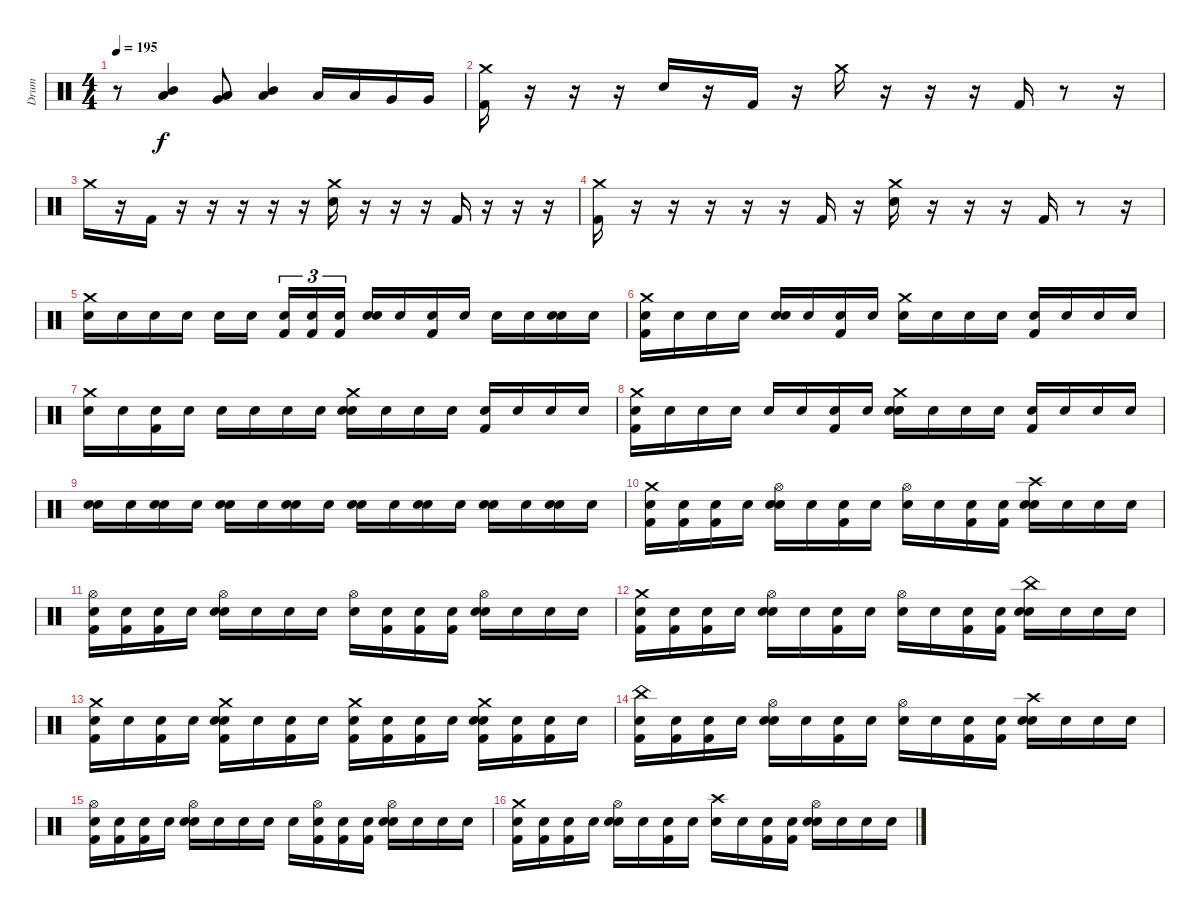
\track ("Drum" "Drum") {instrument percussion}
\staff {score}
\articulation defaults
\ts (4 4)
\tempo 195
\clef neutral
\ks c
r.8{dy f} ("Mid Tom (hit)" "Low Tom (hit)").4 ("Very Low Tom (hit)" "Low Tom (hit)").8 ("Mid Tom (hit)" "Low Tom (hit)").4 "Low Tom (hit)".16 "Low Tom (hit)".16 "Very Low Tom (hit)".16 "Very Low Tom (hit)".16 |
("Crash medium (hit)" "Kick (hit) 2").16 r.16 r.16 r.16 "Snare (hit) 2".16 r.16 "Kick (hit) 2".16 r.16 "Crash medium (hit)".16 r.16 r.16 r.16 "Kick (hit) 2".16 r.8 r.16 |
"Crash medium (hit)".16 r.16 "Kick (hit) 2".16 r.16 r.16 r.16 r.16 r.16 ("Crash medium (hit)" "Snare (hit) 2").16 r.16 r.16 r.16 "Kick (hit) 2".16 r.16 r.16 r.16 |
("Crash medium (hit)" "Kick (hit) 2").16 r.16 r.16 r.16 r.16 r.16 "Kick (hit) 2".16 r.16 ("Crash medium (hit)" "Snare (hit) 2").16 r.16 r.16 r.16 "Kick (hit) 2".16 r.8 r.16 |
("Crash medium (hit)" "Snare (hit)").16 "Snare (hit)".16 "Snare (hit)".16 "Snare (hit)".16 "Snare (hit)".16 "Snare (hit)".16{beam splitsecondary} ("Snare (hit)" "Kick (hit) 2").16{tu (3 2)} ("Snare (hit)" "Kick (hit) 2").16{tu (3 2)} ("Snare (hit)" "Kick (hit) 2").16{tu (3 2)} ("Snare (hit)" "Snare (hit) 2").16 "Snare (hit)".16 ("Snare (hit)" "Kick (hit) 2").16 "Snare (hit)".16 "Snare (hit)".16 "Snare (hit)".16 ("Snare (hit)" "Snare (hit) 2").16 "Snare (hit)".16 |
("Crash medium (hit)" "Snare (hit)" "Kick (hit) 2").16 "Snare (hit)".16 "Snare (hit)".16 "Snare (hit)".16 ("Snare (hit)" "Snare (hit) 2").16 "Snare (hit)".16 ("Snare (hit)" "Kick (hit) 2").16 "Snare (hit)".16 ("Crash medium (hit)" "Snare (hit)").16 "Snare (hit)".16 "Snare (hit)".16 "Snare (hit)".16 ("Snare (hit)" "Kick (hit) 2").16 "Snare (hit)".16 "Snare (hit)".16 "Snare (hit)".16 |
("Crash medium (hit)" "Snare (hit)").16 "Snare (hit)".16 ("Snare (hit)" "Kick (hit) 2").16 "Snare (hit)".16 "Snare (hit)".16 "Snare (hit)".16 "Snare (hit)".16 "Snare (hit)".16 ("Crash medium (hit)" "Snare (hit)" "Snare (hit) 2").16 "Snare (hit)".16 "Snare (hit)".16 "Snare (hit)".16 ("Snare (hit)" "Kick (hit) 2").16 "Snare (hit)".16 "Snare (hit)".16 "Snare (hit)".16 |
("Crash medium (hit)" "Snare (hit)" "Kick (hit) 2").16 "Snare (hit)".16 "Snare (hit)".16 "Snare (hit)".16 "Snare (hit)".16 "Snare (hit)".16 ("Snare (hit)" "Kick (hit) 2").16 "Snare (hit)".16 ("Crash medium (hit)" "Snare (hit)" "Snare (hit) 2").16 "Snare (hit)".16 "Snare (hit)".16 "Snare (hit)".16 ("Snare (hit)" "Kick (hit) 2").16 "Snare (hit)".16 "Snare (hit)".16 "Snare (hit)".16 |
("Snare (hit)" "Snare (hit) 2").16 "Snare (hit)".16 ("Snare (hit)" "Snare (hit) 2").16 "Snare (hit)".16 ("Snare (hit)" "Snare (hit) 2").16 "Snare (hit)".16 ("Snare (hit)" "Snare (hit) 2").16 "Snare (hit)".16 ("Snare (hit)" "Snare (hit) 2").16 "Snare (hit)".16 ("Snare (hit)" "Snare (hit) 2").16 "Snare (hit)".16 ("Snare (hit)" "Snare (hit) 2").16 "Snare (hit)".16 ("Snare (hit)" "Snare (hit) 2").16 "Snare (hit)".16 |
("Crash medium (hit)" "Snare (hit)" "Kick (hit) 2").16 ("Snare (hit)" "Kick (hit) 2").16 ("Snare (hit)" "Kick (hit) 2").16 "Snare (hit)".16 ("Hi-Hat (open)" "Snare (hit) 2" "Snare (hit)").16 "Snare (hit)".16 ("Snare (hit)" "Kick (hit) 2").16 "Snare (hit)".16 ("Hi-Hat (open)" "Snare (hit)").16 "Snare (hit)".16 ("Snare (hit)" "Kick (hit) 2").16 ("Snare (hit)" "Kick (hit) 2").16 ("Crash high (hit)" "Snare (hit) 2" "Snare (hit)").16 "Snare (hit)".16 "Snare (hit)".16 "Snare (hit)".16 |
("Hi-Hat (open)" "Snare (hit)" "Kick (hit) 2").16 ("Snare (hit)" "Kick (hit) 2").16 ("Snare (hit)" "Kick (hit) 2").16 "Snare (hit)".16 ("Hi-Hat (open)" "Snare (hit) 2" "Snare (hit)").16 "Snare (hit)".16 "Snare (hit)".16 "Snare (hit)".16 ("Hi-Hat (open)" "Snare (hit)").16 ("Snare (hit)" "Kick (hit) 2").16 ("Snare (hit)" "Kick (hit) 2").16 ("Snare (hit)" "Kick (hit) 2").16 ("Hi-Hat (open)" "Snare (hit) 2" "Snare (hit)").16 "Snare (hit)".16 "Snare (hit)".16 "Snare (hit)".16 |
("Crash medium (hit)" "Snare (hit)" "Kick (hit) 2").16 ("Snare (hit)" "Kick (hit) 2").16 ("Snare (hit)" "Kick (hit) 2").16 "Snare (hit)".16 ("Hi-Hat (open)" "Snare (hit) 2" "Snare (hit)").16 "Snare (hit)".16 ("Snare (hit)" "Kick (hit) 2").16 "Snare (hit)".16 ("Hi-Hat (open)" "Snare (hit)").16 "Snare (hit)".16 ("Snare (hit)" "Kick (hit) 2").16 ("Snare (hit)" "Kick (hit) 2").16 ("China (hit)" "Snare (hit) 2" "Snare (hit)").16 "Snare (hit)".16 "Snare (hit)".16 "Snare (hit)".16 |
("Crash medium (hit)" "Snare (hit)" "Kick (hit) 2").16 "Snare (hit)".16 ("Snare (hit)" "Kick (hit) 2").16 "Snare (hit)".16 ("Crash medium (hit)" "Snare (hit) 2" "Snare (hit)" "Kick (hit) 2").16 "Snare (hit)".16 ("Snare (hit)" "Kick (hit) 2").16 "Snare (hit)".16 ("Crash medium (hit)" "Snare (hit)" "Kick (hit) 2").16 ("Snare (hit)" "Kick (hit) 2").16 ("Snare (hit)" "Kick (hit) 2").16 "Snare (hit)".16 ("Crash medium (hit)" "Snare (hit) 2" "Snare (hit)" "Kick (hit) 2").16 ("Snare (hit)" "Kick (hit) 2").16 ("Snare (hit)" "Kick (hit) 2").16 "Snare (hit)".16 |
("China (hit)" "Snare (hit)" "Kick (hit) 2").16 ("Snare (hit)" "Kick (hit) 2").16 ("Snare (hit)" "Kick (hit) 2").16 "Snare (hit)".16 ("Hi-Hat (open)" "Snare (hit) 2" "Snare (hit)").16 "Snare (hit)".16 ("Snare (hit)" "Kick (hit) 2").16 "Snare (hit)".16 ("Hi-Hat (open)" "Snare (hit)").16 "Snare (hit)".16 ("Snare (hit)" "Kick (hit) 2").16 ("Snare (hit)" "Kick (hit) 2").16 ("Crash high (hit)" "Snare (hit) 2" "Snare (hit)").16 "Snare (hit)".16 "Snare (hit)".16 "Snare (hit)".16 |
("Hi-Hat (open)" "Snare (hit)" "Kick (hit) 2").16 ("Snare (hit)" "Kick (hit) 2").16 ("Snare (hit)" "Kick (hit) 2").16 "Snare (hit)".16 ("Hi-Hat (open)" "Snare (hit) 2" "Snare (hit)").16 "Snare (hit)".16 "Snare (hit)".16 "Snare (hit)".16 "Snare (hit)".16 ("Hi-Hat (open)" "Snare (hit)" "Kick (hit) 2").16 ("Snare (hit)" "Kick (hit) 2").16 ("Snare (hit)" "Kick (hit) 2").16 ("Hi-Hat (open)" "Snare (hit) 2" "Snare (hit)").16 "Snare (hit)".16 "Snare (hit)".16 "Snare (hit)".16 |
("Crash medium (hit)" "Snare (hit)" "Kick (hit) 2").16 ("Snare (hit)" "Kick (hit) 2").16 ("Snare (hit)" "Kick (hit) 2").16 "Snare (hit)".16 ("Hi-Hat (open)" "Snare (hit) 2" "Snare (hit)").16 "Snare (hit)".16 ("Snare (hit)" "Kick (hit) 2").16 "Snare (hit)".16 ("Crash high (hit)" "Snare (hit)").16 "Snare (hit)".16 ("Snare (hit)" "Kick (hit) 2").16 ("Snare (hit)" "Kick (hit) 2").16 ("Hi-Hat (open)" "Snare (hit) 2" "Snare (hit)").16 "Snare (hit)".16 "Snare (hit)".16 "Snare (hit)".16
